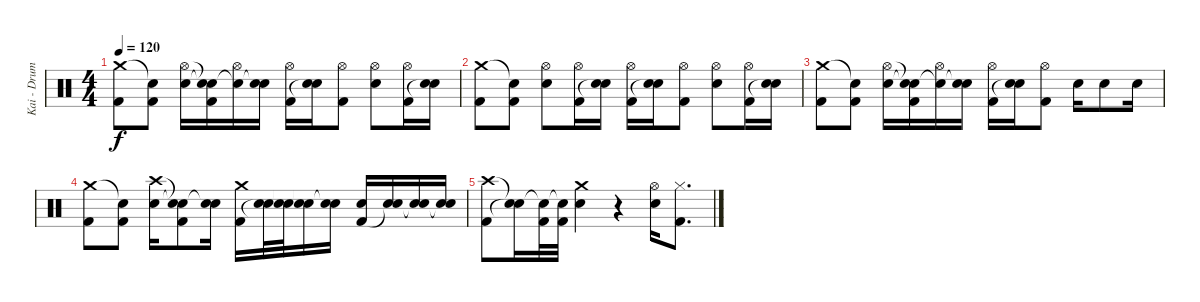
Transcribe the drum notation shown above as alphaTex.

\track ("Kai - Drums" "Kai - Drum") {instrument percussion}
\staff {score}
\articulation defaults
\ts (4 4)
\tempo 120
\clef neutral
\ks c
("Crash medium (hit)" "Kick (hit) 2").8{dy f} ("Snare (hit)"{t} "Kick (hit) 2").8 ("Hi-Hat (open)" "Snare (hit) 2").16 ("Snare (hit)"{t} "Snare (hit)"{t} "Kick (hit) 2").16 ("Hi-Hat (open)" "Snare (hit)"{t}).16 ("Snare (hit) 2" "Snare (hit)"{t}).16 ("Hi-Hat (open)" "Kick (hit) 2").16 ("Snare (hit) 2" "Snare (hit)"{t}).16 ("Hi-Hat (open)" "Kick (hit) 2").8 ("Hi-Hat (open)" "Snare (hit) 2").8 ("Hi-Hat (open)" "Kick (hit) 2").16 ("Snare (hit) 2" "Snare (hit)"{t}).16 |
("Crash medium (hit)" "Kick (hit) 2").8 ("Snare (hit)"{t} "Kick (hit) 2").8 ("Hi-Hat (open)" "Snare (hit) 2").8 ("Hi-Hat (open)" "Kick (hit) 2").16 ("Snare (hit) 2" "Snare (hit)"{t}).16 ("Hi-Hat (open)" "Kick (hit) 2").16 ("Snare (hit) 2" "Snare (hit)"{t}).16 ("Hi-Hat (open)" "Kick (hit) 2").8 ("Hi-Hat (open)" "Snare (hit) 2").8 ("Hi-Hat (open)" "Kick (hit) 2").16 ("Snare (hit) 2" "Snare (hit)"{t}).16 |
("Crash medium (hit)" "Kick (hit) 2").8 ("Snare (hit)"{t} "Kick (hit) 2").8 ("Hi-Hat (open)" "Snare (hit) 2").16 ("Snare (hit)"{t} "Snare (hit)"{t} "Kick (hit) 2").16 ("Hi-Hat (open)" "Snare (hit)"{t}).16 ("Snare (hit) 2" "Snare (hit)"{t}).16 ("Hi-Hat (open)" "Kick (hit) 2").16 ("Snare (hit) 2" "Snare (hit)"{t}).16 ("Hi-Hat (open)" "Kick (hit) 2").8 "Snare (hit) 2".16 "Snare (hit) 2".8 "Snare (hit) 2".16 |
("Crash medium (hit)" "Kick (hit) 2").8 ("Snare (hit)"{t} "Kick (hit) 2").8 ("Crash high (hit)" "Snare (hit) 2").16 ("Snare (hit)"{t} "Snare (hit)"{t} "Kick (hit) 2").8 ("Snare (hit) 2" "Snare (hit)"{t}).16 ("Crash medium (hit)" "Kick (hit) 2").16 ("Snare (hit) 2" "Snare (hit)"{t}).32 ("Snare (hit) 2" "Snare (hit)"{t}).32 ("Snare (hit) 2" "Snare (hit)"{t}).16 ("Snare (hit) 2" "Snare (hit)"{t}).16 ("Snare (hit) 2" "Kick (hit) 2").16 ("Snare (hit) 2" "Snare (hit)"{t}).16 ("Snare (hit) 2" "Snare (hit)"{t}).16 ("Snare (hit) 2" "Snare (hit)"{t}).16 |
("Crash high (hit)" "Kick (hit) 2").8 ("Snare (hit)"{t} "Snare (hit)"{t}).16 ("Snare (hit)"{t} "Kick (hit) 2").32 ("Snare (hit)"{t} "Kick (hit) 2").32 ("Crash medium (hit)" "Snare (hit) 2").4 r.4 ("Hi-Hat (open)" "Snare (hit) 2").16 ("Hi-Hat (closed)" "Kick (hit) 2").8{d}
